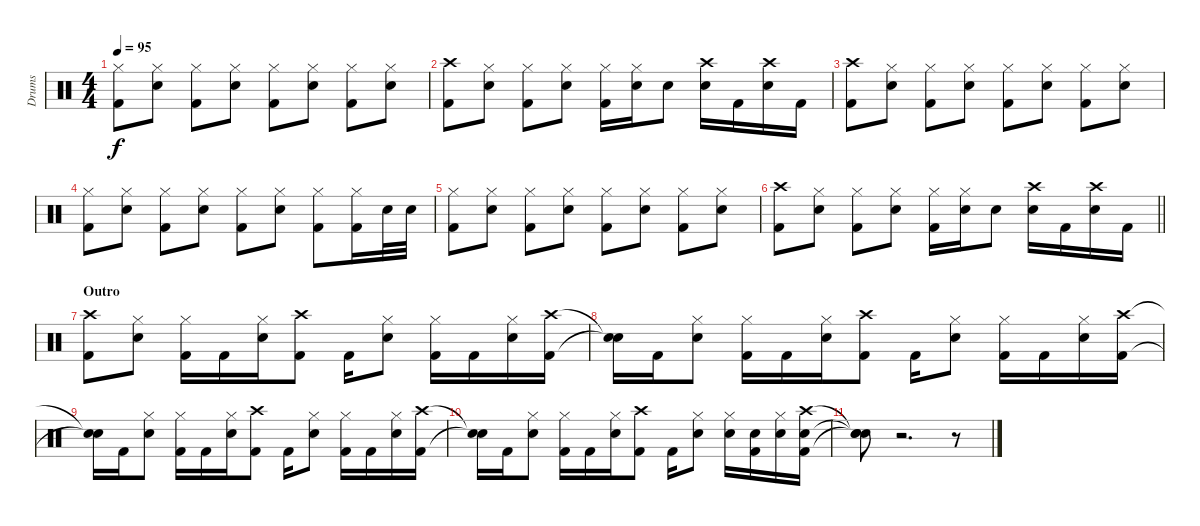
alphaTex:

\track ("Drums" "Drums") {instrument percussion}
\staff {score}
\articulation defaults
\ts (4 4)
\tempo 95
\clef neutral
\ks c
("Hi-Hat (closed)" "Kick (hit) 2").8{dy f} ("Hi-Hat (closed)" "Snare (hit) 2").8 ("Hi-Hat (closed)" "Kick (hit) 2").8 ("Hi-Hat (closed)" "Snare (hit) 2").8 ("Hi-Hat (closed)" "Kick (hit) 2").8 ("Hi-Hat (closed)" "Snare (hit) 2").8 ("Hi-Hat (closed)" "Kick (hit) 2").8 ("Hi-Hat (closed)" "Snare (hit) 2").8 |
("Crash high (hit)" "Kick (hit) 2").8 ("Hi-Hat (closed)" "Snare (hit) 2").8 ("Hi-Hat (closed)" "Kick (hit) 2").8 ("Hi-Hat (closed)" "Snare (hit) 2").8 ("Hi-Hat (closed)" "Kick (hit) 2").16 ("Hi-Hat (closed)" "Snare (hit) 2").16 "Snare (hit) 2".8 ("Crash high (hit)" "Snare (hit) 2").16 "Kick (hit) 2".16 ("Crash high (hit)" "Snare (hit) 2").16 "Kick (hit) 2".16 |
("Crash high (hit)" "Kick (hit) 2").8 ("Hi-Hat (closed)" "Snare (hit) 2").8 ("Hi-Hat (closed)" "Kick (hit) 2").8 ("Hi-Hat (closed)" "Snare (hit) 2").8 ("Hi-Hat (closed)" "Kick (hit) 2").8 ("Hi-Hat (closed)" "Snare (hit) 2").8 ("Hi-Hat (closed)" "Kick (hit) 2").8 ("Hi-Hat (closed)" "Snare (hit) 2").8 |
("Hi-Hat (closed)" "Kick (hit) 2").8 ("Hi-Hat (closed)" "Snare (hit) 2").8 ("Hi-Hat (closed)" "Kick (hit) 2").8 ("Hi-Hat (closed)" "Snare (hit) 2").8 ("Hi-Hat (closed)" "Kick (hit) 2").8 ("Hi-Hat (closed)" "Snare (hit) 2").8 ("Hi-Hat (closed)" "Kick (hit) 2").8 ("Hi-Hat (closed)" "Kick (hit) 2").16 "Snare (hit) 2".32 "Snare (hit) 2".32 |
("Hi-Hat (closed)" "Kick (hit) 2").8 ("Hi-Hat (closed)" "Snare (hit) 2").8 ("Hi-Hat (closed)" "Kick (hit) 2").8 ("Hi-Hat (closed)" "Snare (hit) 2").8 ("Hi-Hat (closed)" "Kick (hit) 2").8 ("Hi-Hat (closed)" "Snare (hit) 2").8 ("Hi-Hat (closed)" "Kick (hit) 2").8 ("Hi-Hat (closed)" "Snare (hit) 2").8 |
\barLineRight lightlight
("Crash high (hit)" "Kick (hit) 2").8 ("Hi-Hat (closed)" "Snare (hit) 2").8 ("Hi-Hat (closed)" "Kick (hit) 2").8 ("Hi-Hat (closed)" "Snare (hit) 2").8 ("Hi-Hat (closed)" "Kick (hit) 2").16 ("Hi-Hat (closed)" "Snare (hit) 2").16 "Snare (hit) 2".8 ("Crash high (hit)" "Snare (hit) 2").16 "Kick (hit) 2".16 ("Crash high (hit)" "Snare (hit) 2").16 "Kick (hit) 2".16 |
\section ("" "Outro")
("Crash high (hit)" "Kick (hit) 2").8 ("Hi-Hat (closed)" "Snare (hit) 2").8 ("Hi-Hat (closed)" "Kick (hit) 2").16 "Kick (hit) 2".16 ("Hi-Hat (closed)" "Snare (hit) 2").16 ("Crash high (hit)" "Kick (hit) 2").8 "Kick (hit) 2".16 ("Hi-Hat (closed)" "Snare (hit) 2").8 ("Hi-Hat (closed)" "Kick (hit) 2").16 "Kick (hit) 2".16 ("Hi-Hat (closed)" "Snare (hit) 2").16 ("Crash high (hit)" "Kick (hit) 2").16 |
("Snare (hit)"{t} "Snare (hit)"{t}).16 "Kick (hit) 2".16 ("Hi-Hat (closed)" "Snare (hit) 2").8 ("Hi-Hat (closed)" "Kick (hit) 2").16 "Kick (hit) 2".16 ("Hi-Hat (closed)" "Snare (hit) 2").16 ("Crash high (hit)" "Kick (hit) 2").8 "Kick (hit) 2".16 ("Hi-Hat (closed)" "Snare (hit) 2").8 ("Hi-Hat (closed)" "Kick (hit) 2").16 "Kick (hit) 2".16 ("Hi-Hat (closed)" "Snare (hit) 2").16 ("Crash high (hit)" "Kick (hit) 2").16 |
("Snare (hit)"{t} "Snare (hit)"{t}).16 "Kick (hit) 2".16 ("Hi-Hat (closed)" "Snare (hit) 2").8 ("Hi-Hat (closed)" "Kick (hit) 2").16 "Kick (hit) 2".16 ("Hi-Hat (closed)" "Snare (hit) 2").16 ("Crash high (hit)" "Kick (hit) 2").8 "Kick (hit) 2".16 ("Hi-Hat (closed)" "Snare (hit) 2").8 ("Hi-Hat (closed)" "Kick (hit) 2").16 "Kick (hit) 2".16 ("Hi-Hat (closed)" "Snare (hit) 2").16 ("Crash high (hit)" "Kick (hit) 2").16 |
("Snare (hit)"{t} "Snare (hit)"{t}).16 "Kick (hit) 2".16 ("Hi-Hat (closed)" "Snare (hit) 2").8 ("Hi-Hat (closed)" "Kick (hit) 2").16 "Kick (hit) 2".16 ("Hi-Hat (closed)" "Snare (hit) 2").16 ("Crash high (hit)" "Kick (hit) 2").8 "Kick (hit) 2".16 ("Hi-Hat (closed)" "Snare (hit) 2").8 ("Hi-Hat (closed)" "Snare (hit) 2").16 ("Snare (hit) 2" "Kick (hit) 2").16 ("Hi-Hat (closed)" "Snare (hit) 2").16 ("Crash high (hit)" "Snare (hit) 2" "Kick (hit) 2").16 |
("Snare (hit)"{t} "Snare (hit)"{t} "Snare (hit)"{t}).8 r.2{d} r.8
